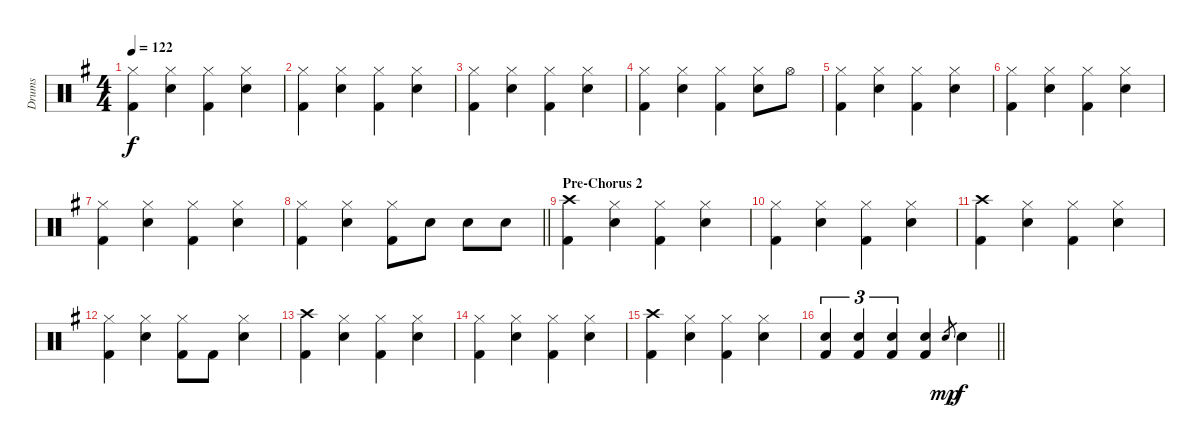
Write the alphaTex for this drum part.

\track ("Drums" "Drums") {instrument percussion}
\staff {score}
\articulation defaults
\ts (4 4)
\tempo 122
\clef neutral
\ks eminor
("Hi-Hat (closed)" "Kick (hit) 2").4{dy f} ("Hi-Hat (closed)" "Electric Snare (hit)").4 ("Hi-Hat (closed)" "Kick (hit) 2").4 ("Hi-Hat (closed)" "Electric Snare (hit)").4 |
("Hi-Hat (closed)" "Kick (hit) 2").4 ("Hi-Hat (closed)" "Electric Snare (hit)").4 ("Hi-Hat (closed)" "Kick (hit) 2").4 ("Hi-Hat (closed)" "Electric Snare (hit)").4 |
("Hi-Hat (closed)" "Kick (hit) 2").4 ("Hi-Hat (closed)" "Electric Snare (hit)").4 ("Hi-Hat (closed)" "Kick (hit) 2").4 ("Hi-Hat (closed)" "Electric Snare (hit)").4 |
("Hi-Hat (closed)" "Kick (hit) 2").4 ("Hi-Hat (closed)" "Electric Snare (hit)").4 ("Hi-Hat (closed)" "Kick (hit) 2").4 ("Hi-Hat (closed)" "Electric Snare (hit)").8 "Hi-Hat (open)".8 |
("Hi-Hat (closed)" "Kick (hit) 2").4 ("Hi-Hat (closed)" "Electric Snare (hit)").4 ("Hi-Hat (closed)" "Kick (hit) 2").4 ("Hi-Hat (closed)" "Electric Snare (hit)").4 |
("Hi-Hat (closed)" "Kick (hit) 2").4 ("Hi-Hat (closed)" "Electric Snare (hit)").4 ("Hi-Hat (closed)" "Kick (hit) 2").4 ("Hi-Hat (closed)" "Electric Snare (hit)").4 |
("Hi-Hat (closed)" "Kick (hit) 2").4 ("Hi-Hat (closed)" "Electric Snare (hit)").4 ("Hi-Hat (closed)" "Kick (hit) 2").4 ("Hi-Hat (closed)" "Electric Snare (hit)").4 |
\barLineRight lightlight
("Hi-Hat (closed)" "Kick (hit) 2").4 ("Hi-Hat (closed)" "Electric Snare (hit)").4 ("Hi-Hat (closed)" "Kick (hit) 2").8 "Electric Snare (hit)".8 "Electric Snare (hit)".8 "Electric Snare (hit)".8 |
\section ("" "Pre-Chorus 2")
("Crash high (hit)" "Kick (hit) 2").4 ("Hi-Hat (closed)" "Electric Snare (hit)").4 ("Hi-Hat (closed)" "Kick (hit) 2").4 ("Hi-Hat (closed)" "Electric Snare (hit)").4 |
("Hi-Hat (closed)" "Kick (hit) 2").4 ("Hi-Hat (closed)" "Electric Snare (hit)").4 ("Hi-Hat (closed)" "Kick (hit) 2").4 ("Hi-Hat (closed)" "Electric Snare (hit)").4 |
("Crash high (hit)" "Kick (hit) 2").4 ("Hi-Hat (closed)" "Electric Snare (hit)").4 ("Hi-Hat (closed)" "Kick (hit) 2").4 ("Hi-Hat (closed)" "Electric Snare (hit)").4 |
("Hi-Hat (closed)" "Kick (hit) 2").4 ("Hi-Hat (closed)" "Electric Snare (hit)").4 ("Hi-Hat (closed)" "Kick (hit) 2").8 "Kick (hit) 2".8 ("Hi-Hat (closed)" "Electric Snare (hit)").4 |
("Crash high (hit)" "Kick (hit) 2").4 ("Hi-Hat (closed)" "Electric Snare (hit)").4 ("Hi-Hat (closed)" "Kick (hit) 2").4 ("Hi-Hat (closed)" "Electric Snare (hit)").4 |
("Hi-Hat (closed)" "Kick (hit) 2").4 ("Hi-Hat (closed)" "Electric Snare (hit)").4 ("Hi-Hat (closed)" "Kick (hit) 2").4 ("Hi-Hat (closed)" "Electric Snare (hit)").4 |
("Crash high (hit)" "Kick (hit) 2").4 ("Hi-Hat (closed)" "Electric Snare (hit)").4 ("Hi-Hat (closed)" "Kick (hit) 2").4 ("Hi-Hat (closed)" "Electric Snare (hit)").4 |
\barLineRight lightlight
("Electric Snare (hit)" "Kick (hit) 2").4{tu (3 2)} ("Electric Snare (hit)" "Kick (hit) 2").4{tu (3 2)} ("Electric Snare (hit)" "Kick (hit) 2").4{tu (3 2)} ("Electric Snare (hit)" "Kick (hit) 2").4 "Electric Snare (hit)".8{gr dy mp} "Electric Snare (hit)".4{dy f}
